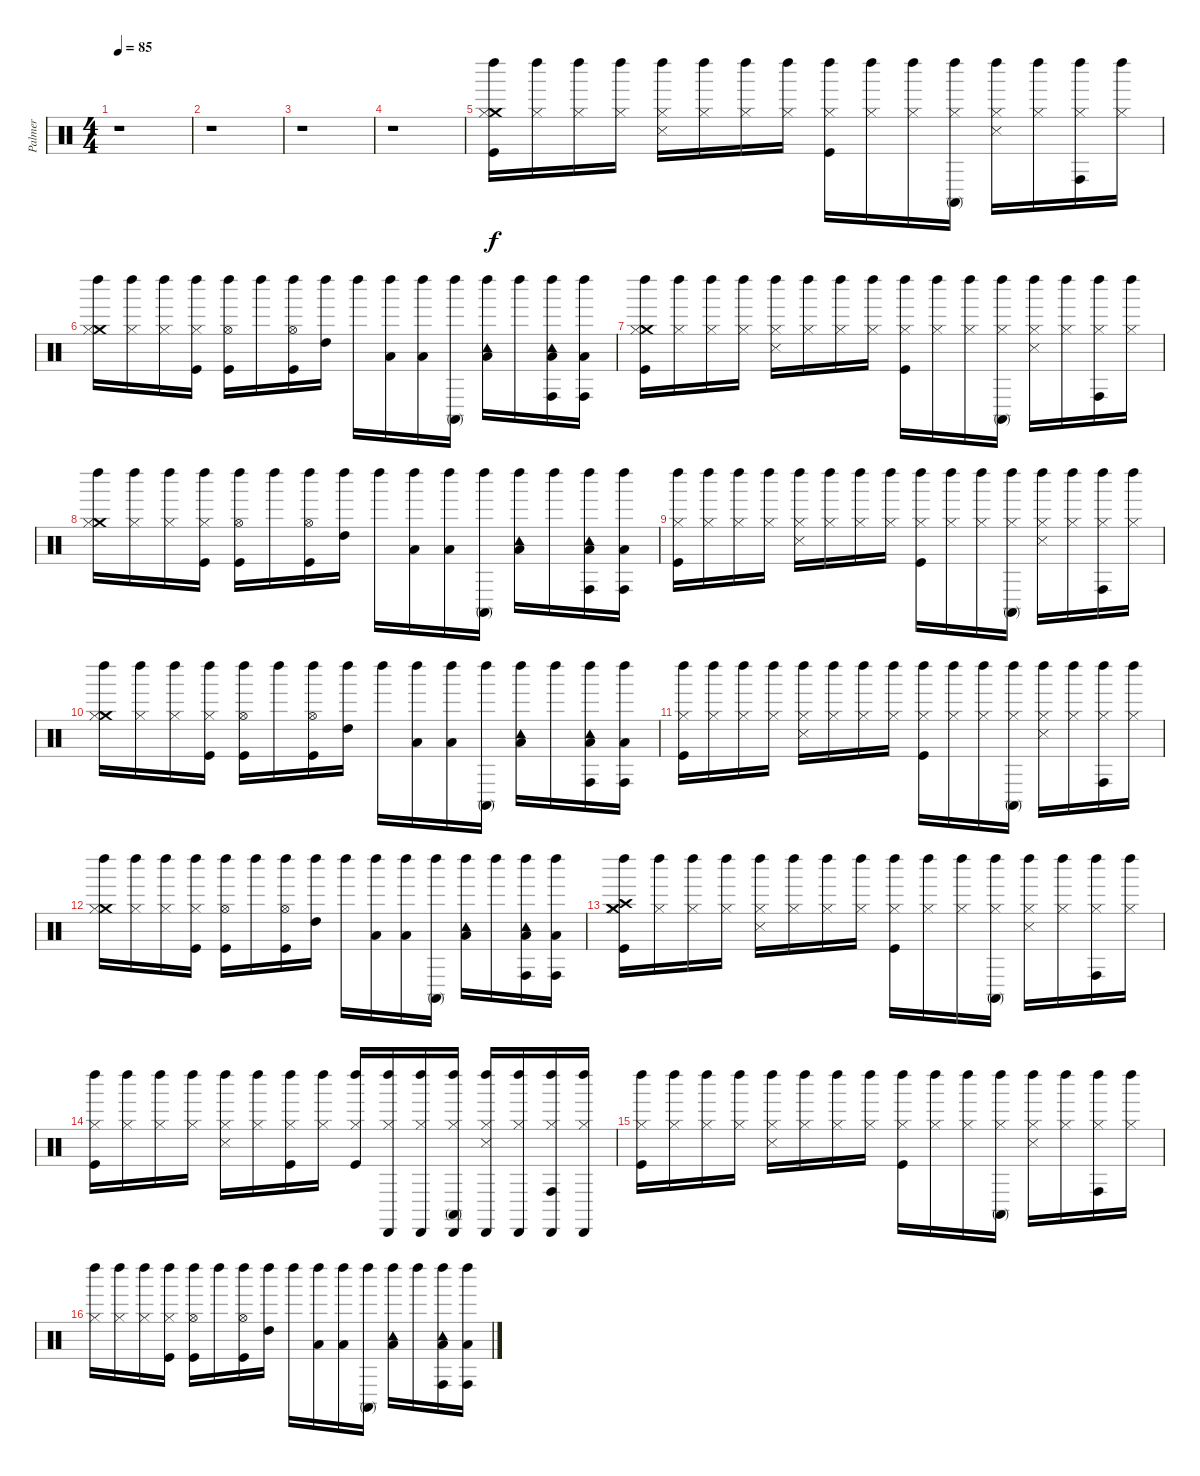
\track ("Palmer" "Palmer") {instrument percussion}
\staff {score}
\articulation defaults
\ts (4 4)
\tempo 85
\clef neutral
\ks c
r.1{dy f} |
r.1 |
r.1 |
r.1 |
("Crash medium (hit)" "Kick (hit)" "Hi-Hat (closed)" "Left Maraca (hit)").16 ("Hi-Hat (closed)" "Left Maraca (hit)").16 ("Hi-Hat (closed)" "Left Maraca (hit)").16 ("Hi-Hat (closed)" "Left Maraca (hit)").16 ("Hi-Hat (closed)" "Snare (side stick) 3" "Left Maraca (hit)").16 ("Hi-Hat (closed)" "Left Maraca (hit)").16 ("Hi-Hat (closed)" "Left Maraca (hit)").16 ("Hi-Hat (closed)" "Left Maraca (hit)").16 ("Kick (hit)" "Hi-Hat (closed)" "Left Maraca (hit)").16 ("Hi-Hat (closed)" "Left Maraca (hit)").16 ("Hi-Hat (closed)" "Left Maraca (hit)").16 ("Hi-Hat (closed)" "Conga high (mute)" "Left Maraca (hit)").16 ("Hi-Hat (closed)" "Snare (side stick) 3" "Left Maraca (hit)").16 ("Hi-Hat (closed)" "Left Maraca (hit)").16 ("Hi-Hat (closed)" "Conga high (hit)" "Left Maraca (hit)").16 ("Hi-Hat (closed)" "Left Maraca (hit)").16 |
("Crash medium (hit)" "Hi-Hat (closed)" "Left Maraca (hit)").16 ("Hi-Hat (closed)" "Left Maraca (hit)").16 ("Hi-Hat (closed)" "Left Maraca (hit)").16 ("Kick (hit)" "Hi-Hat (closed)" "Left Maraca (hit)").16 ("Kick (hit)" "Hi-Hat (open)" "Left Maraca (hit)").16 "Left Maraca (hit)".16 ("Kick (hit)" "Hi-Hat (open)" "Left Maraca (hit)").16 ("High Tom (hit)" "Left Maraca (hit)").16 "Left Maraca (hit)".16 ("Low Tom (hit)" "Left Maraca (hit)").16 ("Low Tom (hit)" "Left Maraca (hit)").16 ("Conga high (mute)" "Left Maraca (hit)").16 ("Low Tom (hit)" "Tambourine (hit)" "Left Maraca (hit)").16 "Left Maraca (hit)".16 ("Low Floor Tom (hit)" "Conga high (hit)" "Tambourine (hit)" "Left Maraca (hit)").16 ("Low Floor Tom (hit)" "Conga high (hit)" "Left Maraca (hit)").16 |
("Crash medium (hit)" "Kick (hit)" "Hi-Hat (closed)" "Left Maraca (hit)").16 ("Hi-Hat (closed)" "Left Maraca (hit)").16 ("Hi-Hat (closed)" "Left Maraca (hit)").16 ("Hi-Hat (closed)" "Left Maraca (hit)").16 ("Hi-Hat (closed)" "Snare (side stick) 3" "Left Maraca (hit)").16 ("Hi-Hat (closed)" "Left Maraca (hit)").16 ("Hi-Hat (closed)" "Left Maraca (hit)").16 ("Hi-Hat (closed)" "Left Maraca (hit)").16 ("Kick (hit)" "Hi-Hat (closed)" "Left Maraca (hit)").16 ("Hi-Hat (closed)" "Left Maraca (hit)").16 ("Hi-Hat (closed)" "Left Maraca (hit)").16 ("Hi-Hat (closed)" "Conga high (mute)" "Left Maraca (hit)").16 ("Hi-Hat (closed)" "Snare (side stick) 3" "Left Maraca (hit)").16 ("Hi-Hat (closed)" "Left Maraca (hit)").16 ("Hi-Hat (closed)" "Conga high (hit)" "Left Maraca (hit)").16 ("Hi-Hat (closed)" "Left Maraca (hit)").16 |
("Crash medium (hit)" "Hi-Hat (closed)" "Left Maraca (hit)").16 ("Hi-Hat (closed)" "Left Maraca (hit)").16 ("Hi-Hat (closed)" "Left Maraca (hit)").16 ("Kick (hit)" "Hi-Hat (closed)" "Left Maraca (hit)").16 ("Kick (hit)" "Hi-Hat (open)" "Left Maraca (hit)").16 "Left Maraca (hit)".16 ("Kick (hit)" "Hi-Hat (open)" "Left Maraca (hit)").16 ("High Tom (hit)" "Left Maraca (hit)").16 "Left Maraca (hit)".16 ("Low Tom (hit)" "Left Maraca (hit)").16 ("Low Tom (hit)" "Left Maraca (hit)").16 ("Conga high (mute)" "Left Maraca (hit)").16 ("Low Tom (hit)" "Tambourine (hit)" "Left Maraca (hit)").16 "Left Maraca (hit)".16 ("Low Floor Tom (hit)" "Conga high (hit)" "Tambourine (hit)" "Left Maraca (hit)").16 ("Low Floor Tom (hit)" "Conga high (hit)" "Left Maraca (hit)").16 |
("Kick (hit)" "Hi-Hat (closed)" "Left Maraca (hit)").16 ("Hi-Hat (closed)" "Left Maraca (hit)").16 ("Hi-Hat (closed)" "Left Maraca (hit)").16 ("Hi-Hat (closed)" "Left Maraca (hit)").16 ("Hi-Hat (closed)" "Snare (side stick) 3" "Left Maraca (hit)").16 ("Hi-Hat (closed)" "Left Maraca (hit)").16 ("Hi-Hat (closed)" "Left Maraca (hit)").16 ("Hi-Hat (closed)" "Left Maraca (hit)").16 ("Kick (hit)" "Hi-Hat (closed)" "Left Maraca (hit)").16 ("Hi-Hat (closed)" "Left Maraca (hit)").16 ("Hi-Hat (closed)" "Left Maraca (hit)").16 ("Hi-Hat (closed)" "Conga high (mute)" "Left Maraca (hit)").16 ("Hi-Hat (closed)" "Snare (side stick) 3" "Left Maraca (hit)").16 ("Hi-Hat (closed)" "Left Maraca (hit)").16 ("Hi-Hat (closed)" "Conga high (hit)" "Left Maraca (hit)").16 ("Hi-Hat (closed)" "Left Maraca (hit)").16 |
("Crash medium (hit)" "Hi-Hat (closed)" "Left Maraca (hit)").16 ("Hi-Hat (closed)" "Left Maraca (hit)").16 ("Hi-Hat (closed)" "Left Maraca (hit)").16 ("Kick (hit)" "Hi-Hat (closed)" "Left Maraca (hit)").16 ("Kick (hit)" "Hi-Hat (open)" "Left Maraca (hit)").16 "Left Maraca (hit)".16 ("Kick (hit)" "Hi-Hat (open)" "Left Maraca (hit)").16 ("High Tom (hit)" "Left Maraca (hit)").16 "Left Maraca (hit)".16 ("Low Tom (hit)" "Left Maraca (hit)").16 ("Low Tom (hit)" "Left Maraca (hit)").16 ("Conga high (mute)" "Left Maraca (hit)").16 ("Low Tom (hit)" "Tambourine (hit)" "Left Maraca (hit)").16 "Left Maraca (hit)".16 ("Low Floor Tom (hit)" "Conga high (hit)" "Tambourine (hit)" "Left Maraca (hit)").16 ("Low Floor Tom (hit)" "Conga high (hit)" "Left Maraca (hit)").16 |
("Kick (hit)" "Hi-Hat (closed)" "Left Maraca (hit)").16 ("Hi-Hat (closed)" "Left Maraca (hit)").16 ("Hi-Hat (closed)" "Left Maraca (hit)").16 ("Hi-Hat (closed)" "Left Maraca (hit)").16 ("Hi-Hat (closed)" "Snare (side stick) 3" "Left Maraca (hit)").16 ("Hi-Hat (closed)" "Left Maraca (hit)").16 ("Hi-Hat (closed)" "Left Maraca (hit)").16 ("Hi-Hat (closed)" "Left Maraca (hit)").16 ("Kick (hit)" "Hi-Hat (closed)" "Left Maraca (hit)").16 ("Hi-Hat (closed)" "Left Maraca (hit)").16 ("Hi-Hat (closed)" "Left Maraca (hit)").16 ("Hi-Hat (closed)" "Conga high (mute)" "Left Maraca (hit)").16 ("Hi-Hat (closed)" "Snare (side stick) 3" "Left Maraca (hit)").16 ("Hi-Hat (closed)" "Left Maraca (hit)").16 ("Hi-Hat (closed)" "Conga high (hit)" "Left Maraca (hit)").16 ("Hi-Hat (closed)" "Left Maraca (hit)").16 |
("Crash medium (hit)" "Hi-Hat (closed)" "Left Maraca (hit)").16 ("Hi-Hat (closed)" "Left Maraca (hit)").16 ("Hi-Hat (closed)" "Left Maraca (hit)").16 ("Kick (hit)" "Hi-Hat (closed)" "Left Maraca (hit)").16 ("Kick (hit)" "Hi-Hat (open)" "Left Maraca (hit)").16 "Left Maraca (hit)".16 ("Kick (hit)" "Hi-Hat (open)" "Left Maraca (hit)").16 ("High Tom (hit)" "Left Maraca (hit)").16 "Left Maraca (hit)".16 ("Low Tom (hit)" "Left Maraca (hit)").16 ("Low Tom (hit)" "Left Maraca (hit)").16 ("Conga high (mute)" "Left Maraca (hit)").16 ("Low Tom (hit)" "Tambourine (hit)" "Left Maraca (hit)").16 "Left Maraca (hit)".16 ("Low Floor Tom (hit)" "Conga high (hit)" "Tambourine (hit)" "Left Maraca (hit)").16 ("Low Floor Tom (hit)" "Conga high (hit)" "Left Maraca (hit)").16 |
("Crash medium (hit)" "Kick (hit)" "Hi-Hat (closed)" "Crash high (hit)" "Left Maraca (hit)").16 ("Hi-Hat (closed)" "Left Maraca (hit)").16 ("Hi-Hat (closed)" "Left Maraca (hit)").16 ("Hi-Hat (closed)" "Left Maraca (hit)").16 ("Hi-Hat (closed)" "Snare (side stick) 3" "Left Maraca (hit)").16 ("Hi-Hat (closed)" "Left Maraca (hit)").16 ("Hi-Hat (closed)" "Left Maraca (hit)").16 ("Hi-Hat (closed)" "Left Maraca (hit)").16 ("Kick (hit)" "Hi-Hat (closed)" "Left Maraca (hit)").16 ("Hi-Hat (closed)" "Left Maraca (hit)").16 ("Hi-Hat (closed)" "Left Maraca (hit)").16 ("Hi-Hat (closed)" "Conga high (mute)" "Left Maraca (hit)").16 ("Hi-Hat (closed)" "Snare (side stick) 3" "Left Maraca (hit)").16 ("Hi-Hat (closed)" "Left Maraca (hit)").16 ("Hi-Hat (closed)" "Conga high (hit)" "Left Maraca (hit)").16 ("Hi-Hat (closed)" "Left Maraca (hit)").16 |
("Kick (hit)" "Hi-Hat (closed)" "Left Maraca (hit)").16 ("Hi-Hat (closed)" "Left Maraca (hit)").16 ("Hi-Hat (closed)" "Left Maraca (hit)").16 ("Hi-Hat (closed)" "Left Maraca (hit)").16 ("Hi-Hat (closed)" "Snare (side stick) 3" "Left Maraca (hit)").16 ("Hi-Hat (closed)" "Left Maraca (hit)").16 ("Kick (hit)" "Hi-Hat (closed)" "Left Maraca (hit)").16 ("Hi-Hat (closed)" "Left Maraca (hit)").16 ("Kick (hit)" "Hi-Hat (closed)" "Left Maraca (hit)").16 ("Hi-Hat (closed)" "Left Maraca (hit)" "Cabasa (hit)").16 ("Hi-Hat (closed)" "Left Maraca (hit)" "Cabasa (hit)").16 ("Hi-Hat (closed)" "Conga high (mute)" "Left Maraca (hit)" "Cabasa (hit)").16 ("Hi-Hat (closed)" "Snare (side stick) 3" "Left Maraca (hit)" "Cabasa (hit)").16 ("Hi-Hat (closed)" "Left Maraca (hit)" "Cabasa (hit)").16 ("Hi-Hat (closed)" "Conga high (hit)" "Left Maraca (hit)" "Cabasa (hit)").16 ("Hi-Hat (closed)" "Left Maraca (hit)" "Cabasa (hit)").16 |
("Kick (hit)" "Hi-Hat (closed)" "Left Maraca (hit)").16 ("Hi-Hat (closed)" "Left Maraca (hit)").16 ("Hi-Hat (closed)" "Left Maraca (hit)").16 ("Hi-Hat (closed)" "Left Maraca (hit)").16 ("Hi-Hat (closed)" "Snare (side stick) 3" "Left Maraca (hit)").16 ("Hi-Hat (closed)" "Left Maraca (hit)").16 ("Hi-Hat (closed)" "Left Maraca (hit)").16 ("Hi-Hat (closed)" "Left Maraca (hit)").16 ("Kick (hit)" "Hi-Hat (closed)" "Left Maraca (hit)").16 ("Hi-Hat (closed)" "Left Maraca (hit)").16 ("Hi-Hat (closed)" "Left Maraca (hit)").16 ("Hi-Hat (closed)" "Conga high (mute)" "Left Maraca (hit)").16 ("Hi-Hat (closed)" "Snare (side stick) 3" "Left Maraca (hit)").16 ("Hi-Hat (closed)" "Left Maraca (hit)").16 ("Hi-Hat (closed)" "Conga high (hit)" "Left Maraca (hit)").16 ("Hi-Hat (closed)" "Left Maraca (hit)").16 |
("Hi-Hat (closed)" "Left Maraca (hit)").16 ("Hi-Hat (closed)" "Left Maraca (hit)").16 ("Hi-Hat (closed)" "Left Maraca (hit)").16 ("Kick (hit)" "Hi-Hat (closed)" "Left Maraca (hit)").16 ("Kick (hit)" "Hi-Hat (open)" "Left Maraca (hit)").16 "Left Maraca (hit)".16 ("Kick (hit)" "Hi-Hat (open)" "Left Maraca (hit)").16 ("High Tom (hit)" "Left Maraca (hit)").16 "Left Maraca (hit)".16 ("Low Tom (hit)" "Left Maraca (hit)").16 ("Low Tom (hit)" "Left Maraca (hit)").16 ("Conga high (mute)" "Left Maraca (hit)").16 ("Low Tom (hit)" "Tambourine (hit)" "Left Maraca (hit)").16 "Left Maraca (hit)".16 ("Low Floor Tom (hit)" "Conga high (hit)" "Tambourine (hit)" "Left Maraca (hit)").16 ("Low Floor Tom (hit)" "Conga high (hit)" "Left Maraca (hit)").16
